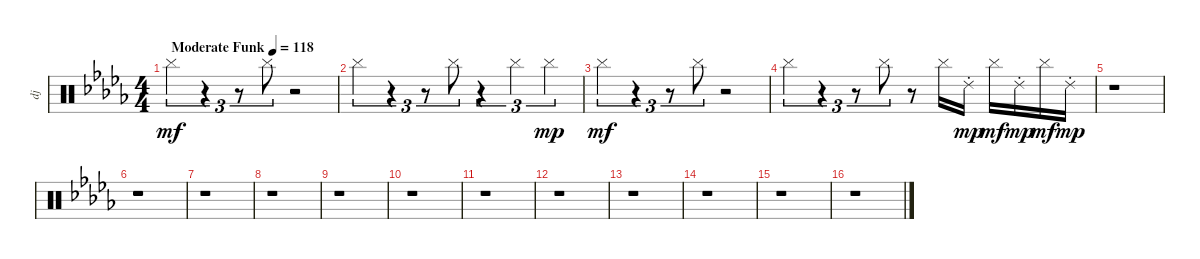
\track ("dj" "dj") {instrument percussion}
\staff {score}
\articulation defaults
\ts (4 4)
\tempo (118 "Moderate Funk")
\clef neutral
\ks db "Cymbal (hit)".4{tu (3 2) dy mf}
r.4{tu (3 2)} r.8{tu (3 2)} "Cymbal (hit)".8{tu (3 2)} r.2 |
"Cymbal (hit)".4{tu (3 2)} r.4{tu (3 2)} r.8{tu (3 2)} "Cymbal (hit)".8{tu (3 2)} r.4{tu (3 2)} "Cymbal (hit)".4{tu (3 2)} "Cymbal (hit)".4{tu (3 2) dy mp} |
"Cymbal (hit)".4{tu (3 2) dy mf} r.4{tu (3 2)} r.8{tu (3 2)} "Cymbal (hit)".8{tu (3 2)} r.2 |
"Cymbal (hit)".4{tu (3 2)} r.4{tu (3 2)} r.8{tu (3 2)} "Cymbal (hit)".8{tu (3 2)} r.8 "Cymbal (hit)".16 "Ride (choke) 2".16{dy mp} "Cymbal (hit)".16{dy mf} "Ride (choke) 2".16{dy mp} "Cymbal (hit)".16{dy mf} "Ride (choke) 2".16{dy mp} |
r.1 |
r.1 |
r.1 |
r.1 |
r.1 |
r.1 |
r.1 |
r.1 |
r.1 |
r.1 |
r.1 |
r.1
